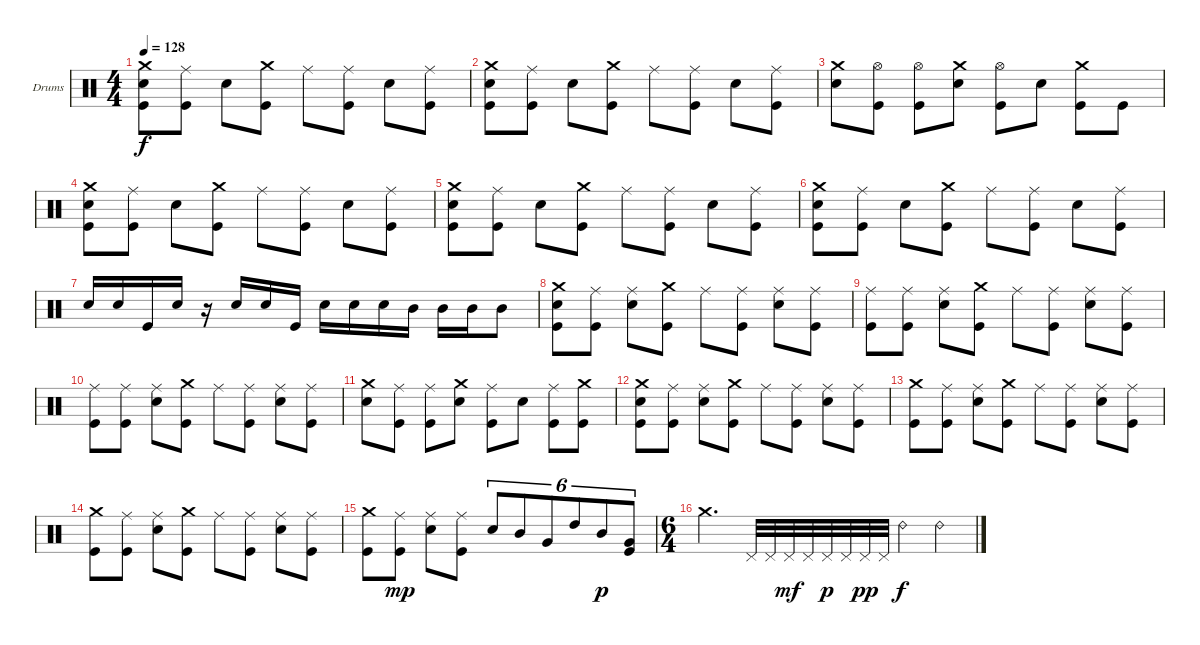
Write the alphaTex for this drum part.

\defaultSystemsLayout 4
\bracketExtendMode nobrackets
\firstSystemTrackNameOrientation horizontal
\otherSystemsTrackNameOrientation horizontal
\track ("Dave Krusen" "Drums") {instrument percussion}
\staff {score}
\articulation defaults
\ts (4 4)
\tempo 128
\clef neutral
\ks c
("Crash medium (hit)" "Snare (hit) 2" "Kick (hit)").8{dy f} ("Ride (middle)" "Kick (hit)").8 "Snare (hit) 2".8 ("Crash medium (hit)" "Kick (hit)").8 "Ride (middle)".8 ("Ride (middle)" "Kick (hit)").8 "Snare (hit) 2".8 ("Ride (middle)" "Kick (hit)").8 |
("Crash medium (hit)" "Snare (hit) 2" "Kick (hit)").8 ("Ride (middle)" "Kick (hit)").8 "Snare (hit) 2".8 ("Crash medium (hit)" "Kick (hit)").8 "Ride (middle)".8 ("Ride (middle)" "Kick (hit)").8 "Snare (hit) 2".8 ("Ride (middle)" "Kick (hit)").8 |
("Crash medium (hit)" "Snare (hit) 2").8 ("Hi-Hat (open)" "Kick (hit)").8 ("Hi-Hat (open)" "Kick (hit)").8 ("Crash medium (hit)" "Snare (hit) 2").8 ("Hi-Hat (open)" "Kick (hit)").8 "Snare (hit) 2".8 ("Crash medium (hit)" "Kick (hit)").8 "Kick (hit)".8 |
("Crash medium (hit)" "Snare (hit) 2" "Kick (hit)").8 ("Ride (middle)" "Kick (hit)").8 "Snare (hit) 2".8 ("Crash medium (hit)" "Kick (hit)").8 "Ride (middle)".8 ("Ride (middle)" "Kick (hit)").8 "Snare (hit) 2".8 ("Ride (middle)" "Kick (hit)").8 |
("Crash medium (hit)" "Snare (hit) 2" "Kick (hit)").8 ("Ride (middle)" "Kick (hit)").8 "Snare (hit) 2".8 ("Crash medium (hit)" "Kick (hit)").8 "Ride (middle)".8 ("Ride (middle)" "Kick (hit)").8 "Snare (hit) 2".8 ("Ride (middle)" "Kick (hit)").8 |
("Crash medium (hit)" "Snare (hit) 2" "Kick (hit)").8 ("Ride (middle)" "Kick (hit)").8 "Snare (hit) 2".8 ("Crash medium (hit)" "Kick (hit)").8 "Ride (middle)".8 ("Ride (middle)" "Kick (hit)").8 "Snare (hit) 2".8 ("Ride (middle)" "Kick (hit)").8 |
"Snare (hit) 2".16 "Snare (hit) 2".16 "Kick (hit)".16 "Snare (hit) 2".16 r.16 "Snare (hit) 2".16 "Snare (hit) 2".16 "Kick (hit)".16 "Snare (hit) 2".16 "Snare (hit) 2".16 "Snare (hit) 2".16 "Mid Tom (hit)".16 "Mid Tom (hit)".16 "Mid Tom (hit)".16 "Mid Tom (hit)".8 |
("Crash medium (hit)" "Snare (hit) 2" "Kick (hit)").8 ("Ride (middle)" "Kick (hit)").8 ("Ride (middle)" "Snare (hit) 2").8 ("Crash medium (hit)" "Kick (hit)").8 "Ride (middle)".8 ("Ride (middle)" "Kick (hit)").8 ("Ride (middle)" "Snare (hit) 2").8 ("Ride (middle)" "Kick (hit)").8 |
("Ride (middle)" "Kick (hit)").8 ("Ride (middle)" "Kick (hit)").8 ("Ride (middle)" "Snare (hit) 2").8 ("Crash medium (hit)" "Kick (hit)").8 "Ride (middle)".8 ("Ride (middle)" "Kick (hit)").8 ("Ride (middle)" "Snare (hit) 2").8 ("Ride (middle)" "Kick (hit)").8 |
("Ride (middle)" "Kick (hit)").8 ("Ride (middle)" "Kick (hit)").8 ("Ride (middle)" "Snare (hit) 2").8 ("Crash medium (hit)" "Kick (hit)").8 "Ride (middle)".8 ("Ride (middle)" "Kick (hit)").8 ("Ride (middle)" "Snare (hit) 2").8 ("Ride (middle)" "Kick (hit)").8 |
("Crash medium (hit)" "Snare (hit) 2").8 ("Ride (middle)" "Kick (hit)").8 ("Ride (middle)" "Kick (hit)").8 ("Crash medium (hit)" "Snare (hit) 2").8 ("Ride (middle)" "Kick (hit)").8 "Snare (hit) 2".8 ("Ride (middle)" "Kick (hit)").8 ("Crash medium (hit)" "Kick (hit)").8 |
("Crash medium (hit)" "Snare (hit) 2" "Kick (hit)").8 ("Ride (middle)" "Kick (hit)").8 ("Ride (middle)" "Snare (hit) 2").8 ("Crash medium (hit)" "Kick (hit)").8 "Ride (middle)".8 ("Ride (middle)" "Kick (hit)").8 ("Ride (middle)" "Snare (hit) 2").8 ("Ride (middle)" "Kick (hit)").8 |
("Crash medium (hit)" "Kick (hit)").8 ("Ride (middle)" "Kick (hit)").8 ("Ride (middle)" "Snare (hit) 2").8 ("Crash medium (hit)" "Kick (hit)").8 "Ride (middle)".8 ("Ride (middle)" "Kick (hit)").8 ("Ride (middle)" "Snare (hit) 2").8 ("Ride (middle)" "Kick (hit)").8 |
("Crash medium (hit)" "Kick (hit)").8 ("Ride (middle)" "Kick (hit)").8 ("Ride (middle)" "Snare (hit) 2").8 ("Crash medium (hit)" "Kick (hit)").8 "Ride (middle)".8 ("Ride (middle)" "Kick (hit)").8 ("Ride (middle)" "Snare (hit) 2").8 ("Ride (middle)" "Kick (hit)").8 |
("Crash medium (hit)" "Kick (hit)").8 ("Ride (middle)" "Kick (hit)").8{dy mp} ("Ride (middle)" "Snare (hit) 2").8 ("Ride (middle)" "Kick (hit)").8 "Snare (hit) 2".8{tu (6 4)} "Mid Tom (hit)".8{tu (6 4)} "Very Low Tom (hit)".8{tu (6 4)} "High Tom (hit)".8{tu (6 4)} "Mid Tom (hit)".8{tu (6 4) dy p} ("Very Low Tom (hit)" "Kick (hit)").8{tu (6 4)} |
\ts (6 4)
"Crash medium (hit)".2{d} "Pedal Hi-Hat (hit)".32 "Pedal Hi-Hat (hit)".32 "Pedal Hi-Hat (hit)".32{dy mf} "Pedal Hi-Hat (hit)".32 "Pedal Hi-Hat (hit)".32{dy p} "Pedal Hi-Hat (hit)".32 "Pedal Hi-Hat (hit)".32{dy pp} "Pedal Hi-Hat (hit)".32 "Ride (bell) 2".4{dy f} "Ride (bell) 2".4
